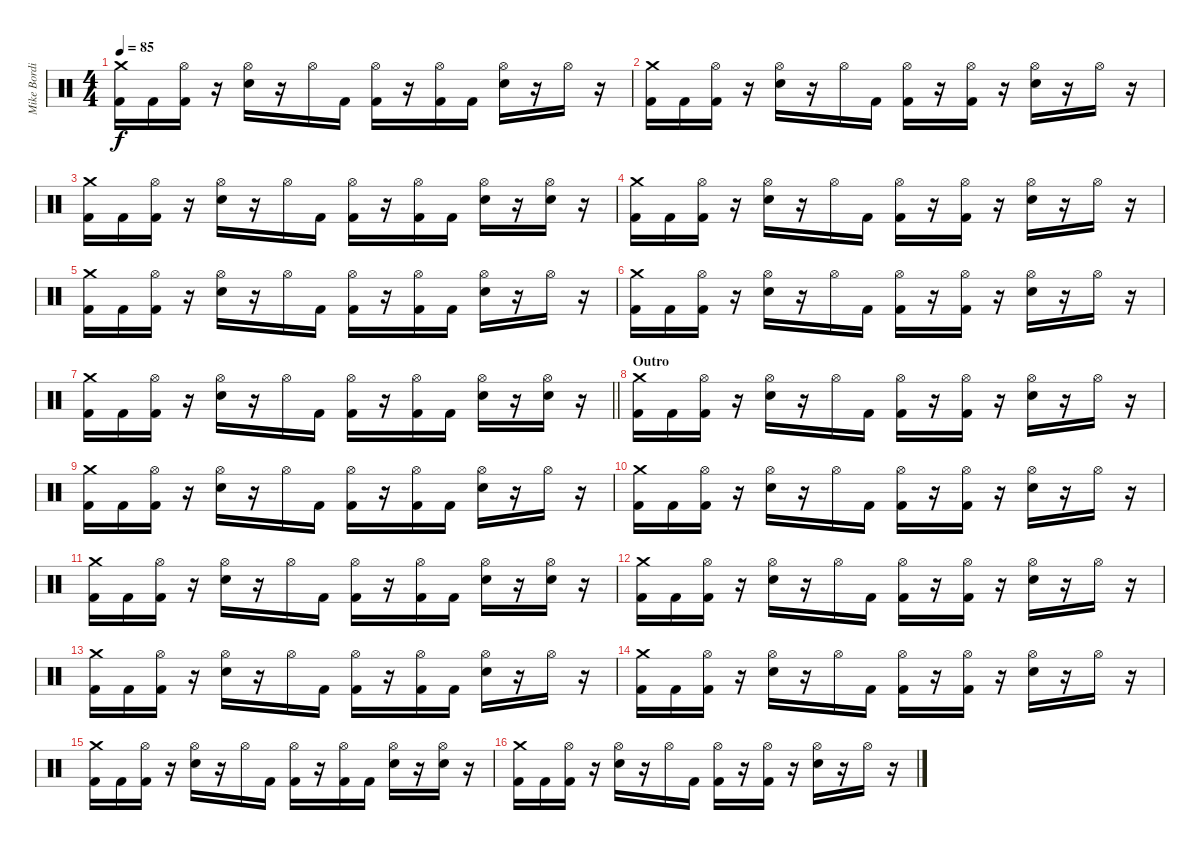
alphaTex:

\track ("Mike Bordin (Drums)" "Mike Bordi") {instrument percussion}
\staff {score}
\articulation defaults
\ts (4 4)
\tempo 85
\clef neutral
\ks c
("Crash medium (hit)" "Kick (hit) 2").16{dy f} "Kick (hit) 2".16 ("Hi-Hat (open)" "Kick (hit) 2").16 r.16 ("Hi-Hat (open)" "Snare (hit) 2").16 r.16 "Hi-Hat (open)".16 "Kick (hit) 2".16 ("Hi-Hat (open)" "Kick (hit) 2").16 r.16 ("Hi-Hat (open)" "Kick (hit) 2").16 "Kick (hit) 2".16 ("Hi-Hat (open)" "Snare (hit) 2").16 r.16 "Hi-Hat (open)".16 r.16 |
("Crash medium (hit)" "Kick (hit) 2").16 "Kick (hit) 2".16 ("Hi-Hat (open)" "Kick (hit) 2").16 r.16 ("Hi-Hat (open)" "Snare (hit) 2").16 r.16 "Hi-Hat (open)".16 "Kick (hit) 2".16 ("Hi-Hat (open)" "Kick (hit) 2").16 r.16 ("Hi-Hat (open)" "Kick (hit) 2").16 r.16 ("Hi-Hat (open)" "Snare (hit) 2").16 r.16 "Hi-Hat (open)".16 r.16 |
("Crash medium (hit)" "Kick (hit) 2").16 "Kick (hit) 2".16 ("Hi-Hat (open)" "Kick (hit) 2").16 r.16 ("Hi-Hat (open)" "Snare (hit) 2").16 r.16 "Hi-Hat (open)".16 "Kick (hit) 2".16 ("Hi-Hat (open)" "Kick (hit) 2").16 r.16 ("Hi-Hat (open)" "Kick (hit) 2").16 "Kick (hit) 2".16 ("Hi-Hat (open)" "Snare (hit) 2").16 r.16 ("Hi-Hat (open)" "Snare (hit) 2").16 r.16 |
("Crash medium (hit)" "Kick (hit) 2").16 "Kick (hit) 2".16 ("Hi-Hat (open)" "Kick (hit) 2").16 r.16 ("Hi-Hat (open)" "Snare (hit) 2").16 r.16 "Hi-Hat (open)".16 "Kick (hit) 2".16 ("Hi-Hat (open)" "Kick (hit) 2").16 r.16 ("Hi-Hat (open)" "Kick (hit) 2").16 r.16 ("Hi-Hat (open)" "Snare (hit) 2").16 r.16 "Hi-Hat (open)".16 r.16 |
("Crash medium (hit)" "Kick (hit) 2").16 "Kick (hit) 2".16 ("Hi-Hat (open)" "Kick (hit) 2").16 r.16 ("Hi-Hat (open)" "Snare (hit) 2").16 r.16 "Hi-Hat (open)".16 "Kick (hit) 2".16 ("Hi-Hat (open)" "Kick (hit) 2").16 r.16 ("Hi-Hat (open)" "Kick (hit) 2").16 "Kick (hit) 2".16 ("Hi-Hat (open)" "Snare (hit) 2").16 r.16 "Hi-Hat (open)".16 r.16 |
("Crash medium (hit)" "Kick (hit) 2").16 "Kick (hit) 2".16 ("Hi-Hat (open)" "Kick (hit) 2").16 r.16 ("Hi-Hat (open)" "Snare (hit) 2").16 r.16 "Hi-Hat (open)".16 "Kick (hit) 2".16 ("Hi-Hat (open)" "Kick (hit) 2").16 r.16 ("Hi-Hat (open)" "Kick (hit) 2").16 r.16 ("Hi-Hat (open)" "Snare (hit) 2").16 r.16 "Hi-Hat (open)".16 r.16 |
\barLineRight lightlight
("Crash medium (hit)" "Kick (hit) 2").16 "Kick (hit) 2".16 ("Hi-Hat (open)" "Kick (hit) 2").16 r.16 ("Hi-Hat (open)" "Snare (hit) 2").16 r.16 "Hi-Hat (open)".16 "Kick (hit) 2".16 ("Hi-Hat (open)" "Kick (hit) 2").16 r.16 ("Hi-Hat (open)" "Kick (hit) 2").16 "Kick (hit) 2".16 ("Hi-Hat (open)" "Snare (hit) 2").16 r.16 ("Hi-Hat (open)" "Snare (hit) 2").16 r.16 |
\section ("" "Outro")
("Crash medium (hit)" "Kick (hit) 2").16 "Kick (hit) 2".16 ("Hi-Hat (open)" "Kick (hit) 2").16 r.16 ("Hi-Hat (open)" "Snare (hit) 2").16 r.16 "Hi-Hat (open)".16 "Kick (hit) 2".16 ("Hi-Hat (open)" "Kick (hit) 2").16 r.16 ("Hi-Hat (open)" "Kick (hit) 2").16 r.16 ("Hi-Hat (open)" "Snare (hit) 2").16 r.16 "Hi-Hat (open)".16 r.16 |
("Crash medium (hit)" "Kick (hit) 2").16 "Kick (hit) 2".16 ("Hi-Hat (open)" "Kick (hit) 2").16 r.16 ("Hi-Hat (open)" "Snare (hit) 2").16 r.16 "Hi-Hat (open)".16 "Kick (hit) 2".16 ("Hi-Hat (open)" "Kick (hit) 2").16 r.16 ("Hi-Hat (open)" "Kick (hit) 2").16 "Kick (hit) 2".16 ("Hi-Hat (open)" "Snare (hit) 2").16 r.16 "Hi-Hat (open)".16 r.16 |
("Crash medium (hit)" "Kick (hit) 2").16 "Kick (hit) 2".16 ("Hi-Hat (open)" "Kick (hit) 2").16 r.16 ("Hi-Hat (open)" "Snare (hit) 2").16 r.16 "Hi-Hat (open)".16 "Kick (hit) 2".16 ("Hi-Hat (open)" "Kick (hit) 2").16 r.16 ("Hi-Hat (open)" "Kick (hit) 2").16 r.16 ("Hi-Hat (open)" "Snare (hit) 2").16 r.16 "Hi-Hat (open)".16 r.16 |
("Crash medium (hit)" "Kick (hit) 2").16 "Kick (hit) 2".16 ("Hi-Hat (open)" "Kick (hit) 2").16 r.16 ("Hi-Hat (open)" "Snare (hit) 2").16 r.16 "Hi-Hat (open)".16 "Kick (hit) 2".16 ("Hi-Hat (open)" "Kick (hit) 2").16 r.16 ("Hi-Hat (open)" "Kick (hit) 2").16 "Kick (hit) 2".16 ("Hi-Hat (open)" "Snare (hit) 2").16 r.16 ("Hi-Hat (open)" "Snare (hit) 2").16 r.16 |
("Crash medium (hit)" "Kick (hit) 2").16 "Kick (hit) 2".16 ("Hi-Hat (open)" "Kick (hit) 2").16 r.16 ("Hi-Hat (open)" "Snare (hit) 2").16 r.16 "Hi-Hat (open)".16 "Kick (hit) 2".16 ("Hi-Hat (open)" "Kick (hit) 2").16 r.16 ("Hi-Hat (open)" "Kick (hit) 2").16 r.16 ("Hi-Hat (open)" "Snare (hit) 2").16 r.16 "Hi-Hat (open)".16 r.16 |
("Crash medium (hit)" "Kick (hit) 2").16 "Kick (hit) 2".16 ("Hi-Hat (open)" "Kick (hit) 2").16 r.16 ("Hi-Hat (open)" "Snare (hit) 2").16 r.16 "Hi-Hat (open)".16 "Kick (hit) 2".16 ("Hi-Hat (open)" "Kick (hit) 2").16 r.16 ("Hi-Hat (open)" "Kick (hit) 2").16 "Kick (hit) 2".16 ("Hi-Hat (open)" "Snare (hit) 2").16 r.16 "Hi-Hat (open)".16 r.16 |
("Crash medium (hit)" "Kick (hit) 2").16 "Kick (hit) 2".16 ("Hi-Hat (open)" "Kick (hit) 2").16 r.16 ("Hi-Hat (open)" "Snare (hit) 2").16 r.16 "Hi-Hat (open)".16 "Kick (hit) 2".16 ("Hi-Hat (open)" "Kick (hit) 2").16 r.16 ("Hi-Hat (open)" "Kick (hit) 2").16 r.16 ("Hi-Hat (open)" "Snare (hit) 2").16 r.16 "Hi-Hat (open)".16 r.16 |
("Crash medium (hit)" "Kick (hit) 2").16 "Kick (hit) 2".16 ("Hi-Hat (open)" "Kick (hit) 2").16 r.16 ("Hi-Hat (open)" "Snare (hit) 2").16 r.16 "Hi-Hat (open)".16 "Kick (hit) 2".16 ("Hi-Hat (open)" "Kick (hit) 2").16 r.16 ("Hi-Hat (open)" "Kick (hit) 2").16 "Kick (hit) 2".16 ("Hi-Hat (open)" "Snare (hit) 2").16 r.16 ("Hi-Hat (open)" "Snare (hit) 2").16 r.16 |
("Crash medium (hit)" "Kick (hit) 2").16 "Kick (hit) 2".16 ("Hi-Hat (open)" "Kick (hit) 2").16 r.16 ("Hi-Hat (open)" "Snare (hit) 2").16 r.16 "Hi-Hat (open)".16 "Kick (hit) 2".16 ("Hi-Hat (open)" "Kick (hit) 2").16 r.16 ("Hi-Hat (open)" "Kick (hit) 2").16 r.16 ("Hi-Hat (open)" "Snare (hit) 2").16 r.16 "Hi-Hat (open)".16 r.16
